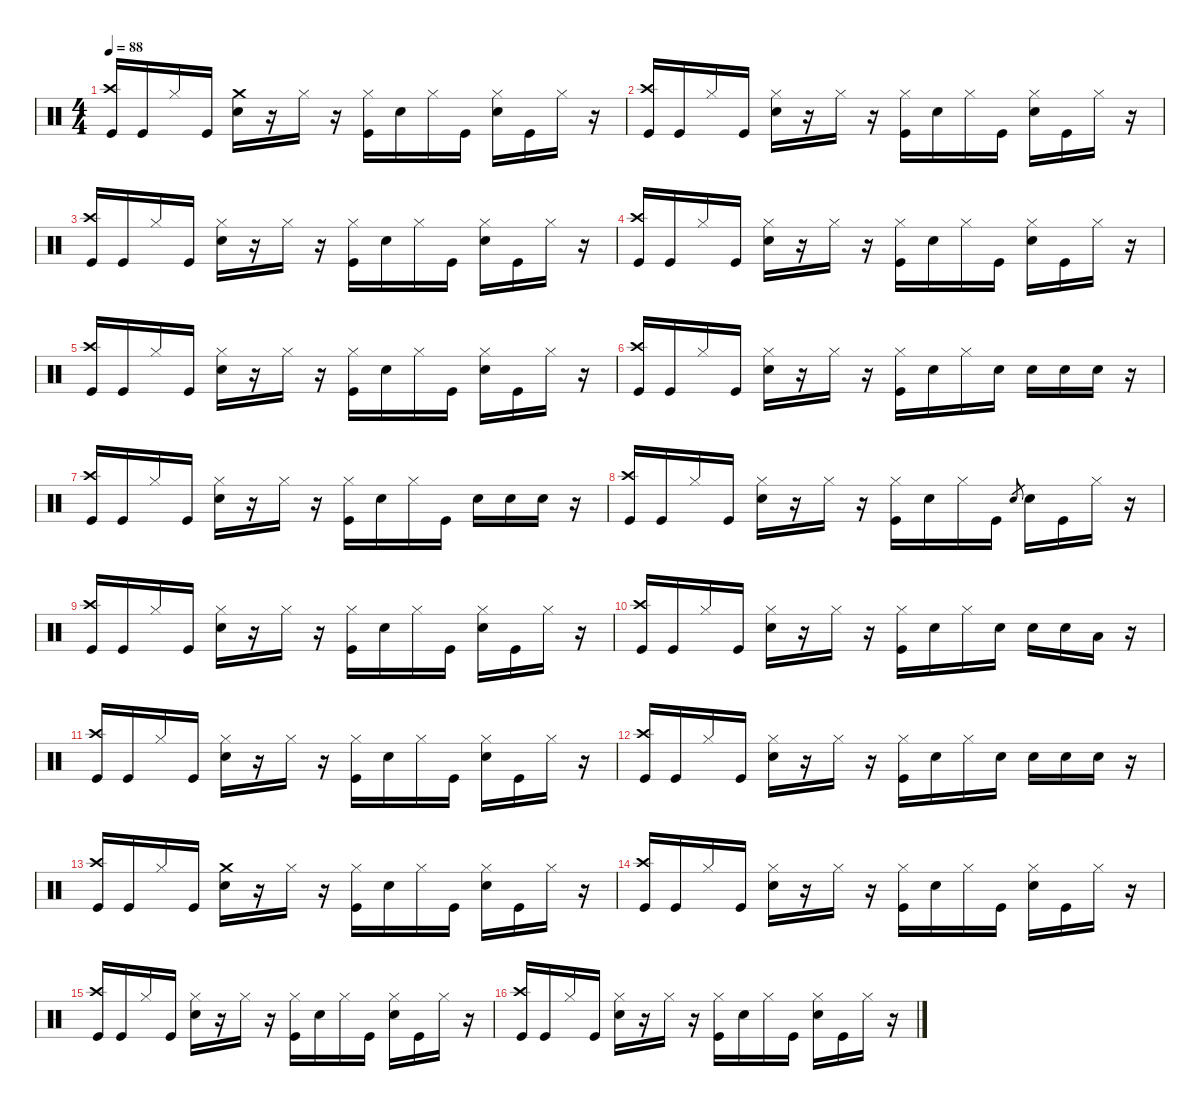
\defaultSystemsLayout 4
\hideDynamics
\bracketExtendMode nobrackets
\singleTrackTrackNamePolicy hidden
\multiTrackTrackNamePolicy hidden
\firstSystemTrackNameMode fullname
\firstSystemTrackNameOrientation horizontal
\otherSystemsTrackNameOrientation horizontal
\track ("Drums" "drm.") {instrument percussion}
\staff {score}
\articulation defaults
\ts (4 4)
\tempo 88
\clef neutral
\ks c
("Crash high (hit)" "Kick (hit)").16{dy f beam Up} "Kick (hit)".16{beam Up} "Hi-Hat (closed)".16{dy p beam Up} "Kick (hit)".16{dy f beam Up} ("Crash medium (hit)" "Snare (hit) 2").16{dy mp beam Down} r.16{beam Down} "Hi-Hat (closed)".16{dy p beam Down} r.16{beam Down} ("Hi-Hat (closed)" "Kick (hit)").16{dy mp beam Down} "Snare (hit) 2".16{beam Down} "Hi-Hat (closed)".16{dy p beam Down} "Kick (hit)".16{dy f beam Down} ("Hi-Hat (closed)" "Snare (hit) 2").16{dy mp beam Down} "Kick (hit)".16{dy f beam Down} "Hi-Hat (closed)".16{dy p beam Down} r.16{beam Down} |
("Crash high (hit)" "Kick (hit)").16{dy f beam Up} "Kick (hit)".16{beam Up} "Hi-Hat (closed)".16{dy p beam Up} "Kick (hit)".16{dy f beam Up} ("Hi-Hat (closed)" "Snare (hit) 2").16{dy mp beam Down} r.16{beam Down} "Hi-Hat (closed)".16{dy p beam Down} r.16{beam Down} ("Hi-Hat (closed)" "Kick (hit)").16{dy mp beam Down} "Snare (hit) 2".16{beam Down} "Hi-Hat (closed)".16{dy p beam Down} "Kick (hit)".16{dy f beam Down} ("Hi-Hat (closed)" "Snare (hit) 2").16{dy mp beam Down} "Kick (hit)".16{dy f beam Down} "Hi-Hat (closed)".16{dy p beam Down} r.16{beam Down} |
("Crash high (hit)" "Kick (hit)").16{dy f beam Up} "Kick (hit)".16{beam Up} "Hi-Hat (closed)".16{dy p beam Up} "Kick (hit)".16{dy f beam Up} ("Hi-Hat (closed)" "Snare (hit) 2").16{dy mp beam Down} r.16{beam Down} "Hi-Hat (closed)".16{dy p beam Down} r.16{beam Down} ("Hi-Hat (closed)" "Kick (hit)").16{dy mp beam Down} "Snare (hit) 2".16{beam Down} "Hi-Hat (closed)".16{dy p beam Down} "Kick (hit)".16{dy f beam Down} ("Hi-Hat (closed)" "Snare (hit) 2").16{dy mp beam Down} "Kick (hit)".16{dy f beam Down} "Hi-Hat (closed)".16{dy p beam Down} r.16{beam Down} |
("Crash high (hit)" "Kick (hit)").16{dy f beam Up} "Kick (hit)".16{beam Up} "Hi-Hat (closed)".16{dy p beam Up} "Kick (hit)".16{dy f beam Up} ("Hi-Hat (closed)" "Snare (hit) 2").16{dy mp beam Down} r.16{beam Down} "Hi-Hat (closed)".16{dy p beam Down} r.16{beam Down} ("Hi-Hat (closed)" "Kick (hit)").16{dy mp beam Down} "Snare (hit) 2".16{beam Down} "Hi-Hat (closed)".16{dy p beam Down} "Kick (hit)".16{dy f beam Down} ("Hi-Hat (closed)" "Snare (hit) 2").16{dy mp beam Down} "Kick (hit)".16{dy f beam Down} "Hi-Hat (closed)".16{dy p beam Down} r.16{beam Down} |
("Crash high (hit)" "Kick (hit)").16{dy f beam Up} "Kick (hit)".16{beam Up} "Hi-Hat (closed)".16{dy p beam Up} "Kick (hit)".16{dy f beam Up} ("Hi-Hat (closed)" "Snare (hit) 2").16{dy mp beam Down} r.16{beam Down} "Hi-Hat (closed)".16{dy p beam Down} r.16{beam Down} ("Hi-Hat (closed)" "Kick (hit)").16{dy mp beam Down} "Snare (hit) 2".16{beam Down} "Hi-Hat (closed)".16{dy p beam Down} "Kick (hit)".16{dy f beam Down} ("Hi-Hat (closed)" "Snare (hit) 2").16{dy mp beam Down} "Kick (hit)".16{dy f beam Down} "Hi-Hat (closed)".16{dy p beam Down} r.16{beam Down} |
("Crash high (hit)" "Kick (hit)").16{dy f beam Up} "Kick (hit)".16{beam Up} "Hi-Hat (closed)".16{dy p beam Up} "Kick (hit)".16{dy f beam Up} ("Hi-Hat (closed)" "Snare (hit) 2").16{dy mp beam Down} r.16{beam Down} "Hi-Hat (closed)".16{dy p beam Down} r.16{beam Down} ("Hi-Hat (closed)" "Kick (hit)").16{dy mp beam Down} "Snare (hit) 2".16{beam Down} "Hi-Hat (closed)".16{dy p beam Down} "Snare (hit) 2".16{dy pp beam Down} "Snare (hit) 2".16{dy mf beam Down} "Snare (hit) 2".16{dy f beam Down} "Snare (hit) 2".16{beam Down} r.16{beam Down} |
("Crash high (hit)" "Kick (hit)").16{beam Up} "Kick (hit)".16{beam Up} "Hi-Hat (closed)".16{dy p beam Up} "Kick (hit)".16{dy f beam Up} ("Hi-Hat (closed)" "Snare (hit) 2").16{dy mp beam Down} r.16{beam Down} "Hi-Hat (closed)".16{dy p beam Down} r.16{beam Down} ("Hi-Hat (closed)" "Kick (hit)").16{dy mp beam Down} "Snare (hit) 2".16{beam Down} "Hi-Hat (closed)".16{dy p beam Down} "Kick (hit)".16{dy f beam Down} "Snare (hit) 2".16{dy mf beam Down} "Snare (hit) 2".16{dy f beam Down} "Snare (hit) 2".16{beam Down} r.16{beam Down} |
("Crash high (hit)" "Kick (hit)").16{beam Up} "Kick (hit)".16{beam Up} "Hi-Hat (closed)".16{dy p beam Up} "Kick (hit)".16{dy f beam Up} ("Hi-Hat (closed)" "Snare (hit) 2").16{dy mp beam Down} r.16{beam Down} "Hi-Hat (closed)".16{dy p beam Down} r.16{beam Down} ("Hi-Hat (closed)" "Kick (hit)").16{dy mp beam Down} "Snare (hit) 2".16{beam Down} "Hi-Hat (closed)".16{dy p beam Down} "Kick (hit)".16{dy f beam Down} "Snare (hit) 2".8{gr dy mp beam Up} "Snare (hit) 2".16{dy f beam Down} "Kick (hit)".16{beam Down} "Hi-Hat (closed)".16{dy p beam Down} r.16{beam Down} |
("Crash high (hit)" "Kick (hit)").16{dy f beam Up} "Kick (hit)".16{beam Up} "Hi-Hat (closed)".16{dy p beam Up} "Kick (hit)".16{dy f beam Up} ("Hi-Hat (closed)" "Snare (hit) 2").16{dy mp beam Down} r.16{beam Down} "Hi-Hat (closed)".16{dy p beam Down} r.16{beam Down} ("Hi-Hat (closed)" "Kick (hit)").16{dy mp beam Down} "Snare (hit) 2".16{beam Down} "Hi-Hat (closed)".16{dy p beam Down} "Kick (hit)".16{dy f beam Down} ("Hi-Hat (closed)" "Snare (hit) 2").16{dy mp beam Down} "Kick (hit)".16{dy f beam Down} "Hi-Hat (closed)".16{dy p beam Down} r.16{beam Down} |
("Crash high (hit)" "Kick (hit)").16{dy f beam Up} "Kick (hit)".16{beam Up} "Hi-Hat (closed)".16{dy p beam Up} "Kick (hit)".16{dy f beam Up} ("Hi-Hat (closed)" "Snare (hit) 2").16{dy mp beam Down} r.16{beam Down} "Hi-Hat (closed)".16{dy p beam Down} r.16{beam Down} ("Hi-Hat (closed)" "Kick (hit)").16{dy mp beam Down} "Snare (hit) 2".16{beam Down} "Hi-Hat (closed)".16{dy p beam Down} "Snare (hit) 2".16{dy pp beam Down} "Snare (hit) 2".16{dy f beam Down} "Snare (hit) 2".16{beam Down} "Low Tom (hit)".16{beam Down} r.16{beam Down} |
("Crash high (hit)" "Kick (hit)").16{beam Up} "Kick (hit)".16{beam Up} "Hi-Hat (closed)".16{dy p beam Up} "Kick (hit)".16{dy f beam Up} ("Hi-Hat (closed)" "Snare (hit) 2").16{dy mp beam Down} r.16{beam Down} "Hi-Hat (closed)".16{dy p beam Down} r.16{beam Down} ("Hi-Hat (closed)" "Kick (hit)").16{dy mp beam Down} "Snare (hit) 2".16{beam Down} "Hi-Hat (closed)".16{dy p beam Down} "Kick (hit)".16{dy f beam Down} ("Hi-Hat (closed)" "Snare (hit) 2").16{dy mp beam Down} "Kick (hit)".16{dy f beam Down} "Hi-Hat (closed)".16{dy p beam Down} r.16{beam Down} |
("Crash high (hit)" "Kick (hit)").16{dy f beam Up} "Kick (hit)".16{beam Up} "Hi-Hat (closed)".16{dy p beam Up} "Kick (hit)".16{dy f beam Up} ("Hi-Hat (closed)" "Snare (hit) 2").16{dy mp beam Down} r.16{beam Down} "Hi-Hat (closed)".16{dy p beam Down} r.16{beam Down} ("Hi-Hat (closed)" "Kick (hit)").16{dy mp beam Down} "Snare (hit) 2".16{beam Down} "Hi-Hat (closed)".16{dy p beam Down} "Snare (hit) 2".16{dy pp beam Down} "Snare (hit) 2".16{dy mf beam Down} "Snare (hit) 2".16{dy f beam Down} "Snare (hit) 2".16{beam Down} r.16{beam Down} |
("Crash high (hit)" "Kick (hit)").16{beam Up} "Kick (hit)".16{beam Up} "Hi-Hat (closed)".16{dy p beam Up} "Kick (hit)".16{dy f beam Up} ("Crash medium (hit)" "Snare (hit) 2").16{dy mp beam Down} r.16{beam Down} "Hi-Hat (closed)".16{dy p beam Down} r.16{beam Down} ("Hi-Hat (closed)" "Kick (hit)").16{dy mp beam Down} "Snare (hit) 2".16{beam Down} "Hi-Hat (closed)".16{dy p beam Down} "Kick (hit)".16{dy f beam Down} ("Hi-Hat (closed)" "Snare (hit) 2").16{dy mp beam Down} "Kick (hit)".16{dy f beam Down} "Hi-Hat (closed)".16{dy p beam Down} r.16{beam Down} |
("Crash high (hit)" "Kick (hit)").16{dy f beam Up} "Kick (hit)".16{beam Up} "Hi-Hat (closed)".16{dy p beam Up} "Kick (hit)".16{dy f beam Up} ("Hi-Hat (closed)" "Snare (hit) 2").16{dy mp beam Down} r.16{beam Down} "Hi-Hat (closed)".16{dy p beam Down} r.16{beam Down} ("Hi-Hat (closed)" "Kick (hit)").16{dy mp beam Down} "Snare (hit) 2".16{beam Down} "Hi-Hat (closed)".16{dy p beam Down} "Kick (hit)".16{dy f beam Down} ("Hi-Hat (closed)" "Snare (hit) 2").16{dy mp beam Down} "Kick (hit)".16{dy f beam Down} "Hi-Hat (closed)".16{dy p beam Down} r.16{beam Down} |
("Crash high (hit)" "Kick (hit)").16{dy f beam Up} "Kick (hit)".16{beam Up} "Hi-Hat (closed)".16{dy p beam Up} "Kick (hit)".16{dy f beam Up} ("Hi-Hat (closed)" "Snare (hit) 2").16{dy mp beam Down} r.16{beam Down} "Hi-Hat (closed)".16{dy p beam Down} r.16{beam Down} ("Hi-Hat (closed)" "Kick (hit)").16{dy mp beam Down} "Snare (hit) 2".16{beam Down} "Hi-Hat (closed)".16{dy p beam Down} "Kick (hit)".16{dy f beam Down} ("Hi-Hat (closed)" "Snare (hit) 2").16{dy mp beam Down} "Kick (hit)".16{dy f beam Down} "Hi-Hat (closed)".16{dy p beam Down} r.16{beam Down} |
("Crash high (hit)" "Kick (hit)").16{dy f beam Up} "Kick (hit)".16{beam Up} "Hi-Hat (closed)".16{dy p beam Up} "Kick (hit)".16{dy f beam Up} ("Hi-Hat (closed)" "Snare (hit) 2").16{dy mp beam Down} r.16{beam Down} "Hi-Hat (closed)".16{dy p beam Down} r.16{beam Down} ("Hi-Hat (closed)" "Kick (hit)").16{dy mp beam Down} "Snare (hit) 2".16{beam Down} "Hi-Hat (closed)".16{dy p beam Down} "Kick (hit)".16{dy f beam Down} ("Hi-Hat (closed)" "Snare (hit) 2").16{dy mp beam Down} "Kick (hit)".16{dy f beam Down} "Hi-Hat (closed)".16{dy p beam Down} r.16{beam Down}
